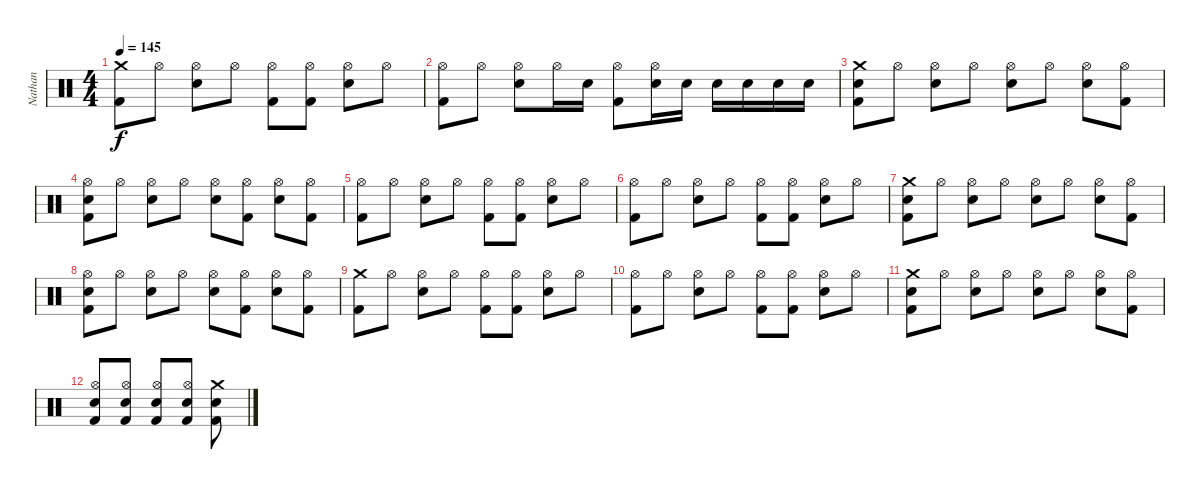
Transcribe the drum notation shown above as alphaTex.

\track ("Nathan" "Nathan") {instrument percussion}
\staff {score}
\articulation defaults
\ts (4 4)
\tempo 145
\clef neutral
\ks c
("Crash medium (hit)" "Kick (hit) 2").8{dy f volume 12} "Hi-Hat (open)".8 ("Hi-Hat (open)" "Electric Snare (hit)").8 "Hi-Hat (open)".8 ("Hi-Hat (open)" "Kick (hit) 2").8 ("Hi-Hat (open)" "Kick (hit) 2").8 ("Hi-Hat (open)" "Electric Snare (hit)").8 "Hi-Hat (open)".8 |
("Hi-Hat (open)" "Kick (hit) 2").8 "Hi-Hat (open)".8 ("Hi-Hat (open)" "Electric Snare (hit)").8 "Hi-Hat (open)".16 "Electric Snare (hit)".16 ("Hi-Hat (open)" "Kick (hit) 2").8 ("Hi-Hat (open)" "Electric Snare (hit)").16 "Electric Snare (hit)".16 "Electric Snare (hit)".16 "Electric Snare (hit)".16 "Electric Snare (hit)".16 "Electric Snare (hit)".16 |
("Crash medium (hit)" "Electric Snare (hit)" "Kick (hit) 2").8 "Hi-Hat (open)".8 ("Hi-Hat (open)" "Electric Snare (hit)").8 "Hi-Hat (open)".8 ("Hi-Hat (open)" "Electric Snare (hit)").8 "Hi-Hat (open)".8 ("Hi-Hat (open)" "Electric Snare (hit)").8 ("Hi-Hat (open)" "Kick (hit) 2").8 |
("Hi-Hat (open)" "Electric Snare (hit)" "Kick (hit) 2").8 "Hi-Hat (open)".8 ("Hi-Hat (open)" "Electric Snare (hit)").8 "Hi-Hat (open)".8 ("Hi-Hat (open)" "Electric Snare (hit)").8 ("Hi-Hat (open)" "Kick (hit) 2").8 ("Hi-Hat (open)" "Electric Snare (hit)").8 ("Hi-Hat (open)" "Kick (hit) 2").8 |
("Hi-Hat (open)" "Kick (hit) 2").8 "Hi-Hat (open)".8 ("Hi-Hat (open)" "Electric Snare (hit)").8 "Hi-Hat (open)".8 ("Hi-Hat (open)" "Kick (hit) 2").8 ("Hi-Hat (open)" "Kick (hit) 2").8 ("Hi-Hat (open)" "Electric Snare (hit)").8 "Hi-Hat (open)".8 |
("Hi-Hat (open)" "Kick (hit) 2").8 "Hi-Hat (open)".8 ("Hi-Hat (open)" "Electric Snare (hit)").8 "Hi-Hat (open)".8 ("Hi-Hat (open)" "Kick (hit) 2").8 ("Hi-Hat (open)" "Kick (hit) 2").8 ("Hi-Hat (open)" "Electric Snare (hit)").8 "Hi-Hat (open)".8 |
("Crash medium (hit)" "Electric Snare (hit)" "Kick (hit) 2").8 "Hi-Hat (open)".8 ("Hi-Hat (open)" "Electric Snare (hit)").8 "Hi-Hat (open)".8 ("Hi-Hat (open)" "Electric Snare (hit)").8 "Hi-Hat (open)".8 ("Hi-Hat (open)" "Electric Snare (hit)").8 ("Hi-Hat (open)" "Kick (hit) 2").8 |
("Hi-Hat (open)" "Electric Snare (hit)" "Kick (hit) 2").8 "Hi-Hat (open)".8 ("Hi-Hat (open)" "Electric Snare (hit)").8 "Hi-Hat (open)".8 ("Hi-Hat (open)" "Electric Snare (hit)").8 ("Hi-Hat (open)" "Kick (hit) 2").8 ("Hi-Hat (open)" "Electric Snare (hit)").8 ("Hi-Hat (open)" "Kick (hit) 2").8 |
("Crash medium (hit)" "Kick (hit) 2").8 "Hi-Hat (open)".8 ("Hi-Hat (open)" "Electric Snare (hit)").8 "Hi-Hat (open)".8 ("Hi-Hat (open)" "Kick (hit) 2").8 ("Hi-Hat (open)" "Kick (hit) 2").8 ("Hi-Hat (open)" "Electric Snare (hit)").8 "Hi-Hat (open)".8 |
("Hi-Hat (open)" "Kick (hit) 2").8 "Hi-Hat (open)".8 ("Hi-Hat (open)" "Electric Snare (hit)").8 "Hi-Hat (open)".8 ("Hi-Hat (open)" "Kick (hit) 2").8 ("Hi-Hat (open)" "Kick (hit) 2").8 ("Hi-Hat (open)" "Electric Snare (hit)").8 "Hi-Hat (open)".8 |
("Crash medium (hit)" "Electric Snare (hit)" "Kick (hit) 2").8 "Hi-Hat (open)".8 ("Hi-Hat (open)" "Electric Snare (hit)").8 "Hi-Hat (open)".8 ("Hi-Hat (open)" "Electric Snare (hit)").8 "Hi-Hat (open)".8 ("Hi-Hat (open)" "Electric Snare (hit)").8 ("Hi-Hat (open)" "Kick (hit) 2").8 |
("Hi-Hat (open)" "Electric Snare (hit)" "Kick (hit) 2").8 ("Hi-Hat (open)" "Electric Snare (hit)" "Kick (hit) 2").8 ("Hi-Hat (open)" "Electric Snare (hit)" "Kick (hit) 2").8 ("Hi-Hat (open)" "Electric Snare (hit)" "Kick (hit) 2").8 ("Crash medium (hit)" "Electric Snare (hit)" "Kick (hit) 2").8
